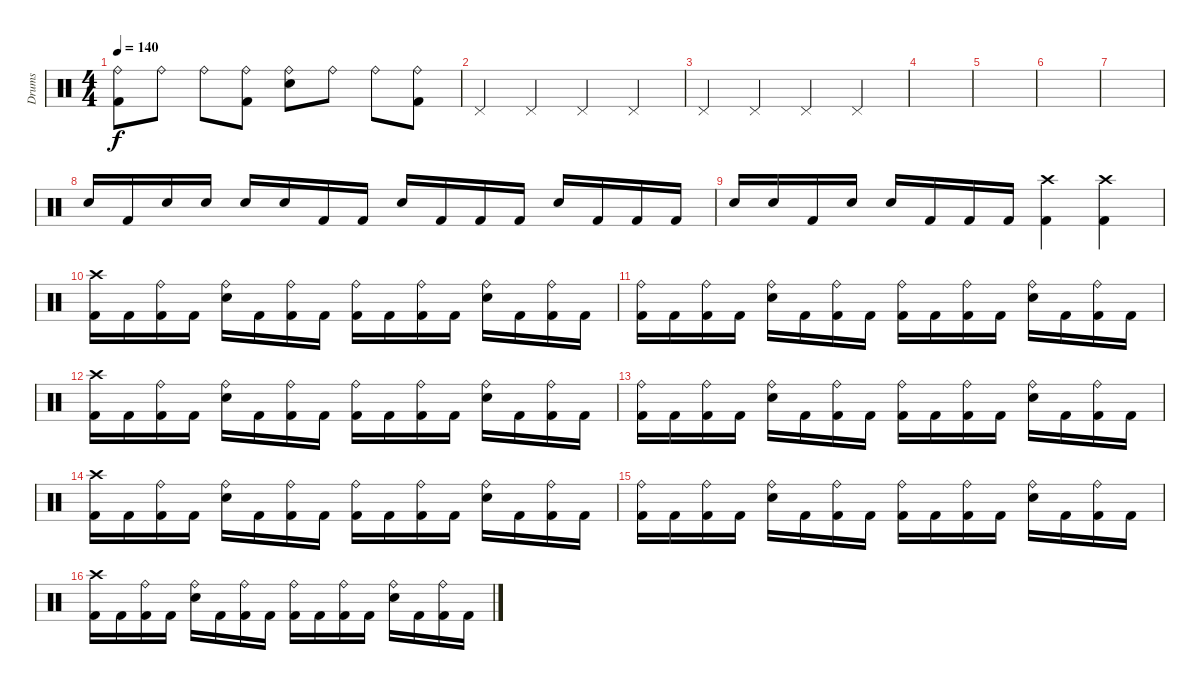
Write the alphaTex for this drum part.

\track ("Drums" "Drums") {instrument percussion}
\staff {score}
\articulation defaults
\ts (4 4)
\tempo 140
\clef neutral
\ks c
("Ride (bell)" "Kick (hit) 2").8{dy f} "Ride (bell)".8 "Ride (bell)".8 ("Ride (bell)" "Kick (hit) 2").8 ("Ride (bell)" "Snare (hit) 2").8 "Ride (bell)".8 "Ride (bell)".8 ("Ride (bell)" "Kick (hit) 2").8 |
"Pedal Hi-Hat (hit)".4 "Pedal Hi-Hat (hit)".4 "Pedal Hi-Hat (hit)".4 "Pedal Hi-Hat (hit)".4 |
"Pedal Hi-Hat (hit)".4 "Pedal Hi-Hat (hit)".4 "Pedal Hi-Hat (hit)".4 "Pedal Hi-Hat (hit)".4 |
|
|
|
|
"Snare (hit) 2".16 "Kick (hit) 2".16 "Snare (hit) 2".16 "Snare (hit) 2".16 "Snare (hit) 2".16 "Snare (hit) 2".16 "Kick (hit) 2".16 "Kick (hit) 2".16 "Snare (hit) 2".16 "Kick (hit) 2".16 "Kick (hit) 2".16 "Kick (hit) 2".16 "Snare (hit) 2".16 "Kick (hit) 2".16 "Kick (hit) 2".16 "Kick (hit) 2".16 |
"Snare (hit) 2".16 "Snare (hit) 2".16 "Kick (hit) 2".16 "Snare (hit) 2".16 "Snare (hit) 2".16 "Kick (hit) 2".16 "Kick (hit) 2".16 "Kick (hit) 2".16 ("Crash high (hit)" "Kick (hit) 2").4 ("Crash high (hit)" "Kick (hit) 2").4 |
("Crash high (hit)" "Kick (hit) 2").16 "Kick (hit) 2".16 ("Ride (bell)" "Kick (hit) 2").16 "Kick (hit) 2".16 ("Ride (bell)" "Snare (hit) 2").16 "Kick (hit) 2".16 ("Ride (bell)" "Kick (hit) 2").16 "Kick (hit) 2".16 ("Ride (bell)" "Kick (hit) 2").16 "Kick (hit) 2".16 ("Ride (bell)" "Kick (hit) 2").16 "Kick (hit) 2".16 ("Ride (bell)" "Snare (hit) 2").16 "Kick (hit) 2".16 ("Ride (bell)" "Kick (hit) 2").16 "Kick (hit) 2".16 |
("Ride (bell)" "Kick (hit) 2").16 "Kick (hit) 2".16 ("Ride (bell)" "Kick (hit) 2").16 "Kick (hit) 2".16 ("Ride (bell)" "Snare (hit) 2").16 "Kick (hit) 2".16 ("Ride (bell)" "Kick (hit) 2").16 "Kick (hit) 2".16 ("Ride (bell)" "Kick (hit) 2").16 "Kick (hit) 2".16 ("Ride (bell)" "Kick (hit) 2").16 "Kick (hit) 2".16 ("Ride (bell)" "Snare (hit) 2").16 "Kick (hit) 2".16 ("Ride (bell)" "Kick (hit) 2").16 "Kick (hit) 2".16 |
("Crash high (hit)" "Kick (hit) 2").16 "Kick (hit) 2".16 ("Ride (bell)" "Kick (hit) 2").16 "Kick (hit) 2".16 ("Ride (bell)" "Snare (hit) 2").16 "Kick (hit) 2".16 ("Ride (bell)" "Kick (hit) 2").16 "Kick (hit) 2".16 ("Ride (bell)" "Kick (hit) 2").16 "Kick (hit) 2".16 ("Ride (bell)" "Kick (hit) 2").16 "Kick (hit) 2".16 ("Ride (bell)" "Snare (hit) 2").16 "Kick (hit) 2".16 ("Ride (bell)" "Kick (hit) 2").16 "Kick (hit) 2".16 |
("Ride (bell)" "Kick (hit) 2").16 "Kick (hit) 2".16 ("Ride (bell)" "Kick (hit) 2").16 "Kick (hit) 2".16 ("Ride (bell)" "Snare (hit) 2").16 "Kick (hit) 2".16 ("Ride (bell)" "Kick (hit) 2").16 "Kick (hit) 2".16 ("Ride (bell)" "Kick (hit) 2").16 "Kick (hit) 2".16 ("Ride (bell)" "Kick (hit) 2").16 "Kick (hit) 2".16 ("Ride (bell)" "Snare (hit) 2").16 "Kick (hit) 2".16 ("Ride (bell)" "Kick (hit) 2").16 "Kick (hit) 2".16 |
("Crash high (hit)" "Kick (hit) 2").16 "Kick (hit) 2".16 ("Ride (bell)" "Kick (hit) 2").16 "Kick (hit) 2".16 ("Ride (bell)" "Snare (hit) 2").16 "Kick (hit) 2".16 ("Ride (bell)" "Kick (hit) 2").16 "Kick (hit) 2".16 ("Ride (bell)" "Kick (hit) 2").16 "Kick (hit) 2".16 ("Ride (bell)" "Kick (hit) 2").16 "Kick (hit) 2".16 ("Ride (bell)" "Snare (hit) 2").16 "Kick (hit) 2".16 ("Ride (bell)" "Kick (hit) 2").16 "Kick (hit) 2".16 |
("Ride (bell)" "Kick (hit) 2").16 "Kick (hit) 2".16 ("Ride (bell)" "Kick (hit) 2").16 "Kick (hit) 2".16 ("Ride (bell)" "Snare (hit) 2").16 "Kick (hit) 2".16 ("Ride (bell)" "Kick (hit) 2").16 "Kick (hit) 2".16 ("Ride (bell)" "Kick (hit) 2").16 "Kick (hit) 2".16 ("Ride (bell)" "Kick (hit) 2").16 "Kick (hit) 2".16 ("Ride (bell)" "Snare (hit) 2").16 "Kick (hit) 2".16 ("Ride (bell)" "Kick (hit) 2").16 "Kick (hit) 2".16 |
("Crash high (hit)" "Kick (hit) 2").16 "Kick (hit) 2".16 ("Ride (bell)" "Kick (hit) 2").16 "Kick (hit) 2".16 ("Ride (bell)" "Snare (hit) 2").16 "Kick (hit) 2".16 ("Ride (bell)" "Kick (hit) 2").16 "Kick (hit) 2".16 ("Ride (bell)" "Kick (hit) 2").16 "Kick (hit) 2".16 ("Ride (bell)" "Kick (hit) 2").16 "Kick (hit) 2".16 ("Ride (bell)" "Snare (hit) 2").16 "Kick (hit) 2".16 ("Ride (bell)" "Kick (hit) 2").16 "Kick (hit) 2".16
